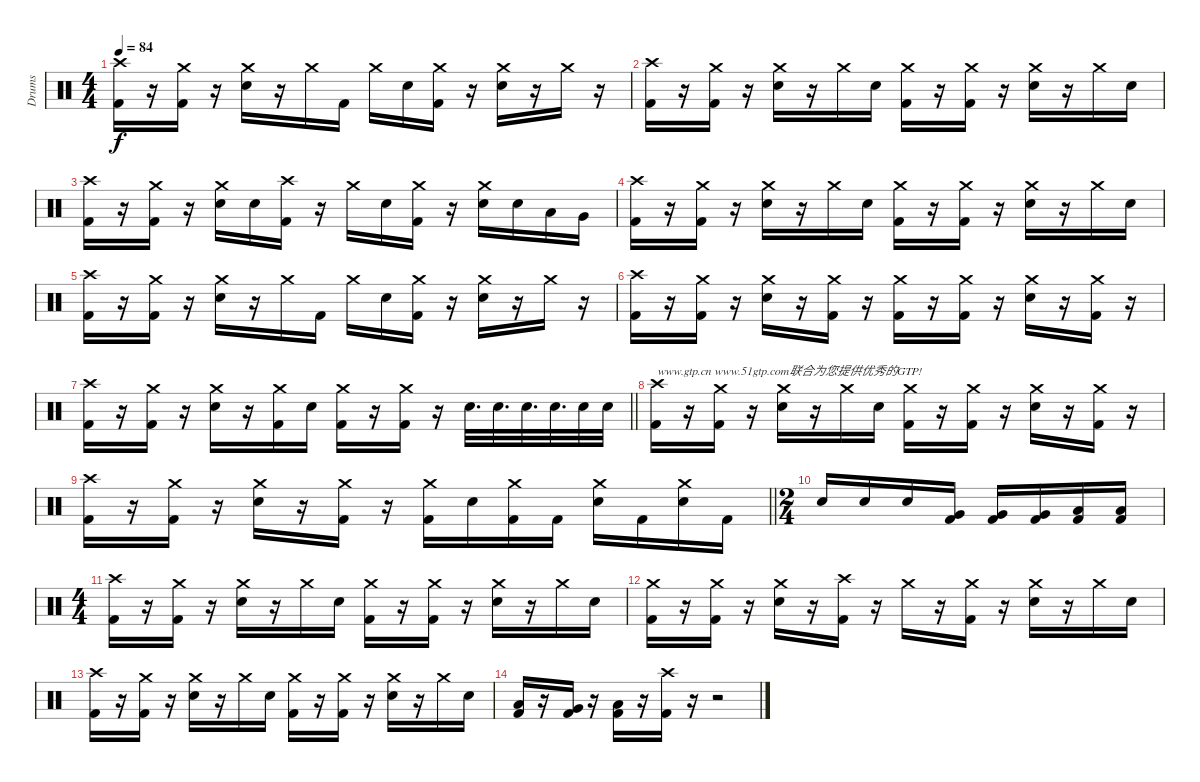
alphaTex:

\track ("Drums" "Drums") {instrument percussion}
\staff {score}
\articulation defaults
\ts (4 4)
\tempo 84
\clef neutral
\ks c
("Crash high (hit)" "Kick (hit) 2").16{dy f} r.16 ("Crash medium (hit)" "Kick (hit) 2").16 r.16 ("Crash medium (hit)" "Electric Snare (hit)").16 r.16 "Crash medium (hit)".16 "Kick (hit) 2".16 "Crash medium (hit)".16 "Electric Snare (hit)".16 ("Crash medium (hit)" "Kick (hit) 2").16 r.16 ("Crash medium (hit)" "Electric Snare (hit)").16 r.16 "Crash medium (hit)".16 r.16 |
("Crash high (hit)" "Kick (hit) 2").16 r.16 ("Crash medium (hit)" "Kick (hit) 2").16 r.16 ("Crash medium (hit)" "Electric Snare (hit)").16 r.16 "Crash medium (hit)".16 "Electric Snare (hit)".16 ("Crash medium (hit)" "Kick (hit) 2").16 r.16 ("Crash medium (hit)" "Kick (hit) 2").16 r.16 ("Crash medium (hit)" "Electric Snare (hit)").16 r.16 "Crash medium (hit)".16 "Electric Snare (hit)".16 |
("Crash high (hit)" "Kick (hit) 2").16 r.16 ("Crash medium (hit)" "Kick (hit) 2").16 r.16 ("Crash medium (hit)" "Electric Snare (hit)").16 "Electric Snare (hit)".16 ("Crash high (hit)" "Kick (hit) 2").16 r.16 "Crash medium (hit)".16 "Electric Snare (hit)".16 ("Crash medium (hit)" "Kick (hit) 2").16 r.16 ("Crash medium (hit)" "Electric Snare (hit)").16 "Electric Snare (hit)".16 "Low Tom (hit)".16 "Very Low Tom (hit)".16 |
("Crash high (hit)" "Kick (hit) 2").16 r.16 ("Crash medium (hit)" "Kick (hit) 2").16 r.16 ("Crash medium (hit)" "Electric Snare (hit)").16 r.16 "Crash medium (hit)".16 "Electric Snare (hit)".16 ("Crash medium (hit)" "Kick (hit) 2").16 r.16 ("Crash medium (hit)" "Kick (hit) 2").16 r.16 ("Crash medium (hit)" "Electric Snare (hit)").16 r.16 "Crash medium (hit)".16 "Electric Snare (hit)".16 |
("Crash high (hit)" "Kick (hit) 2").16 r.16 ("Crash medium (hit)" "Kick (hit) 2").16 r.16 ("Crash medium (hit)" "Electric Snare (hit)").16 r.16 "Crash medium (hit)".16 "Kick (hit) 2".16 "Crash medium (hit)".16 "Electric Snare (hit)".16 ("Crash medium (hit)" "Kick (hit) 2").16 r.16 ("Crash medium (hit)" "Electric Snare (hit)").16 r.16 "Crash medium (hit)".16 r.16 |
("Crash high (hit)" "Kick (hit) 2").16 r.16 ("Crash medium (hit)" "Kick (hit) 2").16 r.16 ("Crash medium (hit)" "Electric Snare (hit)").16 r.16 ("Crash medium (hit)" "Kick (hit) 2").16 r.16 ("Crash medium (hit)" "Kick (hit) 2").16 r.16 ("Crash medium (hit)" "Kick (hit) 2").16 r.16 ("Crash medium (hit)" "Electric Snare (hit)").16 r.16 ("Crash medium (hit)" "Kick (hit) 2").16 r.16 |
\barLineRight lightlight
("Crash high (hit)" "Kick (hit) 2").16 r.16 ("Crash medium (hit)" "Kick (hit) 2").16 r.16 ("Crash medium (hit)" "Electric Snare (hit)").16 r.16 ("Crash medium (hit)" "Kick (hit) 2").16 "Electric Snare (hit)".16 ("Crash medium (hit)" "Kick (hit) 2").16 r.16 ("Crash medium (hit)" "Kick (hit) 2").16 r.16 "Electric Snare (hit)".32{d} "Electric Snare (hit)".32{d} "Electric Snare (hit)".32{d} "Electric Snare (hit)".32{d} "Electric Snare (hit)".32 "Electric Snare (hit)".32 |
("Crash high (hit)" "Kick (hit) 2").16{txt "www.gtp.cn www.51gtp.com联合为您提供优秀的GTP!"} r.16 ("Crash medium (hit)" "Kick (hit) 2").16 r.16 ("Crash medium (hit)" "Electric Snare (hit)").16 r.16 "Crash medium (hit)".16 "Electric Snare (hit)".16 ("Crash medium (hit)" "Kick (hit) 2").16 r.16 ("Crash medium (hit)" "Kick (hit) 2").16 r.16 ("Crash medium (hit)" "Electric Snare (hit)").16 r.16 ("Crash medium (hit)" "Kick (hit) 2").16 r.16 |
\barLineRight lightlight
("Crash high (hit)" "Kick (hit) 2").16 r.16 ("Crash medium (hit)" "Kick (hit) 2").16 r.16 ("Crash medium (hit)" "Electric Snare (hit)").16 r.16 ("Crash medium (hit)" "Kick (hit) 2").16 r.16 ("Crash medium (hit)" "Kick (hit) 2").16 "Electric Snare (hit)".16 ("Crash medium (hit)" "Kick (hit) 2").16 "Kick (hit) 2".16 ("Crash medium (hit)" "Electric Snare (hit)").16 "Kick (hit) 2".16 ("Crash medium (hit)" "Electric Snare (hit)").16 "Kick (hit) 2".16 |
\ts (2 4)
"Electric Snare (hit)".16 "Electric Snare (hit)".16 "Electric Snare (hit)".16 ("Very Low Tom (hit)" "Kick (hit) 2").16 ("Very Low Tom (hit)" "Kick (hit) 2").16 ("Very Low Tom (hit)" "Kick (hit) 2").16 ("Low Floor Tom (hit)" "Kick (hit) 2").16 ("Low Floor Tom (hit)" "Kick (hit) 2").16 |
\ts (4 4)
("Crash high (hit)" "Kick (hit) 2").16 r.16 ("Crash medium (hit)" "Kick (hit) 2").16 r.16 ("Crash medium (hit)" "Electric Snare (hit)").16 r.16 "Crash medium (hit)".16 "Electric Snare (hit)".16 ("Crash medium (hit)" "Kick (hit) 2").16 r.16 ("Crash medium (hit)" "Kick (hit) 2").16 r.16 ("Crash medium (hit)" "Electric Snare (hit)").16 r.16 "Crash medium (hit)".16 "Electric Snare (hit)".16 |
("Crash medium (hit)" "Kick (hit) 2").16 r.16 ("Crash medium (hit)" "Kick (hit) 2").16 r.16 ("Crash medium (hit)" "Electric Snare (hit)").16 r.16 ("Crash high (hit)" "Kick (hit) 2").16 r.16 "Crash medium (hit)".16 r.16 ("Crash medium (hit)" "Kick (hit) 2").16 r.16 ("Crash medium (hit)" "Electric Snare (hit)").16 r.16 "Crash medium (hit)".16 "Electric Snare (hit)".16 |
("Crash high (hit)" "Kick (hit) 2").16 r.16 ("Crash medium (hit)" "Kick (hit) 2").16 r.16 ("Crash medium (hit)" "Electric Snare (hit)").16 r.16 "Crash medium (hit)".16 "Electric Snare (hit)".16 ("Crash medium (hit)" "Kick (hit) 2").16 r.16 ("Crash medium (hit)" "Kick (hit) 2").16 r.16 ("Crash medium (hit)" "Electric Snare (hit)").16 r.16 "Crash medium (hit)".16 "Electric Snare (hit)".16 |
("Low Tom (hit)" "Kick (hit) 2").16 r.16 ("Very Low Tom (hit)" "Kick (hit) 2").16 r.16 ("Low Floor Tom (hit)" "Kick (hit) 2").16 r.16 ("Crash high (hit)" "Kick (hit) 2").16 r.16 r.2
